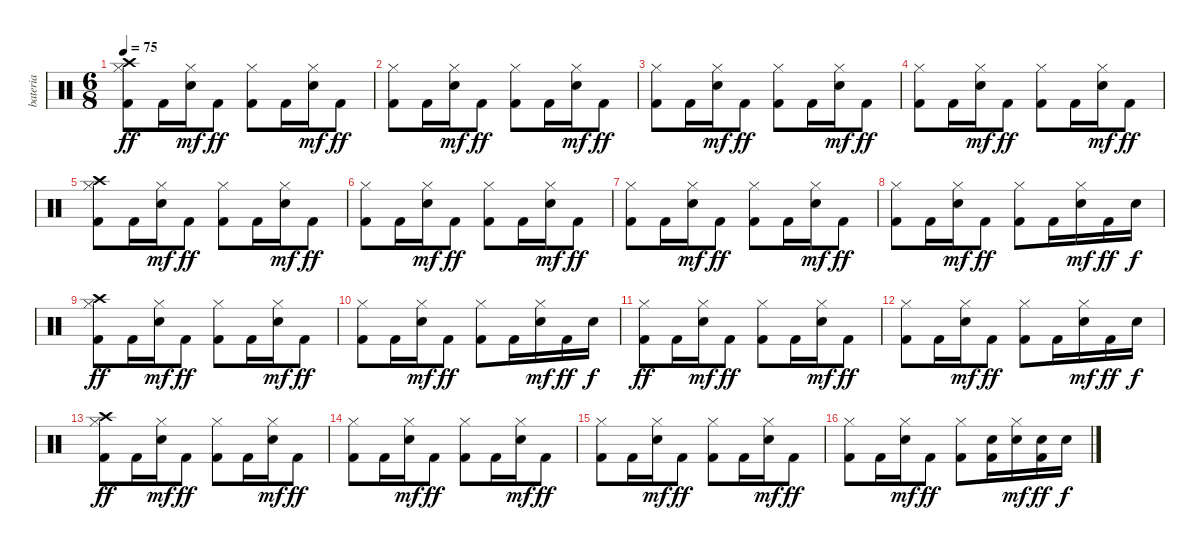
\track ("bateria" "bateria") {instrument percussion}
\staff {score}
\articulation defaults
\ts (6 8)
\tempo 75
\clef neutral
\ks c
("Crash high (hit)" "Hi-Hat (closed)" "Kick (hit) 2").8{dy ff} "Kick (hit) 2".16 ("Hi-Hat (closed)" "Snare (hit) 2").16{dy mf} "Kick (hit) 2".8{dy ff} ("Hi-Hat (closed)" "Kick (hit) 2").8 "Kick (hit) 2".16 ("Hi-Hat (closed)" "Snare (hit) 2").16{dy mf} "Kick (hit) 2".8{dy ff} |
("Hi-Hat (closed)" "Kick (hit) 2").8 "Kick (hit) 2".16 ("Hi-Hat (closed)" "Snare (hit) 2").16{dy mf} "Kick (hit) 2".8{dy ff} ("Hi-Hat (closed)" "Kick (hit) 2").8 "Kick (hit) 2".16 ("Hi-Hat (closed)" "Snare (hit) 2").16{dy mf} "Kick (hit) 2".8{dy ff} |
("Hi-Hat (closed)" "Kick (hit) 2").8 "Kick (hit) 2".16 ("Hi-Hat (closed)" "Snare (hit) 2").16{dy mf} "Kick (hit) 2".8{dy ff} ("Hi-Hat (closed)" "Kick (hit) 2").8 "Kick (hit) 2".16 ("Hi-Hat (closed)" "Snare (hit) 2").16{dy mf} "Kick (hit) 2".8{dy ff} |
("Hi-Hat (closed)" "Kick (hit) 2").8 "Kick (hit) 2".16 ("Hi-Hat (closed)" "Snare (hit) 2").16{dy mf} "Kick (hit) 2".8{dy ff} ("Hi-Hat (closed)" "Kick (hit) 2").8 "Kick (hit) 2".16 ("Hi-Hat (closed)" "Snare (hit) 2").16{dy mf} "Kick (hit) 2".8{dy ff} |
("Crash high (hit)" "Hi-Hat (closed)" "Kick (hit) 2").8 "Kick (hit) 2".16 ("Hi-Hat (closed)" "Snare (hit) 2").16{dy mf} "Kick (hit) 2".8{dy ff} ("Hi-Hat (closed)" "Kick (hit) 2").8 "Kick (hit) 2".16 ("Hi-Hat (closed)" "Snare (hit) 2").16{dy mf} "Kick (hit) 2".8{dy ff} |
("Hi-Hat (closed)" "Kick (hit) 2").8 "Kick (hit) 2".16 ("Hi-Hat (closed)" "Snare (hit) 2").16{dy mf} "Kick (hit) 2".8{dy ff} ("Hi-Hat (closed)" "Kick (hit) 2").8 "Kick (hit) 2".16 ("Hi-Hat (closed)" "Snare (hit) 2").16{dy mf} "Kick (hit) 2".8{dy ff} |
("Hi-Hat (closed)" "Kick (hit) 2").8 "Kick (hit) 2".16 ("Hi-Hat (closed)" "Snare (hit) 2").16{dy mf} "Kick (hit) 2".8{dy ff} ("Hi-Hat (closed)" "Kick (hit) 2").8 "Kick (hit) 2".16 ("Hi-Hat (closed)" "Snare (hit) 2").16{dy mf} "Kick (hit) 2".8{dy ff} |
("Hi-Hat (closed)" "Kick (hit) 2").8 "Kick (hit) 2".16 ("Hi-Hat (closed)" "Snare (hit) 2").16{dy mf} "Kick (hit) 2".8{dy ff} ("Hi-Hat (closed)" "Kick (hit) 2").8 "Kick (hit) 2".16 ("Hi-Hat (closed)" "Snare (hit) 2").16{dy mf} "Kick (hit) 2".16{dy ff} "Snare (hit) 2".16{dy f} |
("Crash high (hit)" "Hi-Hat (closed)" "Kick (hit) 2").8{dy ff} "Kick (hit) 2".16 ("Hi-Hat (closed)" "Snare (hit) 2").16{dy mf} "Kick (hit) 2".8{dy ff} ("Hi-Hat (closed)" "Kick (hit) 2").8 "Kick (hit) 2".16 ("Hi-Hat (closed)" "Snare (hit) 2").16{dy mf} "Kick (hit) 2".8{dy ff} |
("Hi-Hat (closed)" "Kick (hit) 2").8 "Kick (hit) 2".16 ("Hi-Hat (closed)" "Snare (hit) 2").16{dy mf} "Kick (hit) 2".8{dy ff} ("Hi-Hat (closed)" "Kick (hit) 2").8 "Kick (hit) 2".16 ("Hi-Hat (closed)" "Snare (hit) 2").16{dy mf} "Kick (hit) 2".16{dy ff} "Snare (hit) 2".16{dy f} |
("Hi-Hat (closed)" "Kick (hit) 2").8{dy ff} "Kick (hit) 2".16 ("Hi-Hat (closed)" "Snare (hit) 2").16{dy mf} "Kick (hit) 2".8{dy ff} ("Hi-Hat (closed)" "Kick (hit) 2").8 "Kick (hit) 2".16 ("Hi-Hat (closed)" "Snare (hit) 2").16{dy mf} "Kick (hit) 2".8{dy ff} |
("Hi-Hat (closed)" "Kick (hit) 2").8 "Kick (hit) 2".16 ("Hi-Hat (closed)" "Snare (hit) 2").16{dy mf} "Kick (hit) 2".8{dy ff} ("Hi-Hat (closed)" "Kick (hit) 2").8 "Kick (hit) 2".16 ("Hi-Hat (closed)" "Snare (hit) 2").16{dy mf} "Kick (hit) 2".16{dy ff} "Snare (hit) 2".16{dy f} |
("Crash high (hit)" "Hi-Hat (closed)" "Kick (hit) 2").8{dy ff} "Kick (hit) 2".16 ("Hi-Hat (closed)" "Snare (hit) 2").16{dy mf} "Kick (hit) 2".8{dy ff} ("Hi-Hat (closed)" "Kick (hit) 2").8 "Kick (hit) 2".16 ("Hi-Hat (closed)" "Snare (hit) 2").16{dy mf} "Kick (hit) 2".8{dy ff} |
("Hi-Hat (closed)" "Kick (hit) 2").8 "Kick (hit) 2".16 ("Hi-Hat (closed)" "Snare (hit) 2").16{dy mf} "Kick (hit) 2".8{dy ff} ("Hi-Hat (closed)" "Kick (hit) 2").8 "Kick (hit) 2".16 ("Hi-Hat (closed)" "Snare (hit) 2").16{dy mf} "Kick (hit) 2".8{dy ff} |
("Hi-Hat (closed)" "Kick (hit) 2").8 "Kick (hit) 2".16 ("Hi-Hat (closed)" "Snare (hit) 2").16{dy mf} "Kick (hit) 2".8{dy ff} ("Hi-Hat (closed)" "Kick (hit) 2").8 "Kick (hit) 2".16 ("Hi-Hat (closed)" "Snare (hit) 2").16{dy mf} "Kick (hit) 2".8{dy ff} |
("Hi-Hat (closed)" "Kick (hit) 2").8 "Kick (hit) 2".16 ("Hi-Hat (closed)" "Snare (hit) 2").16{dy mf} "Kick (hit) 2".8{dy ff} ("Hi-Hat (closed)" "Kick (hit) 2").8 ("Snare (hit) 2" "Kick (hit) 2").16 ("Hi-Hat (closed)" "Snare (hit) 2").16{dy mf} ("Snare (hit) 2" "Kick (hit) 2").16{dy ff} "Snare (hit) 2".16{dy f}
